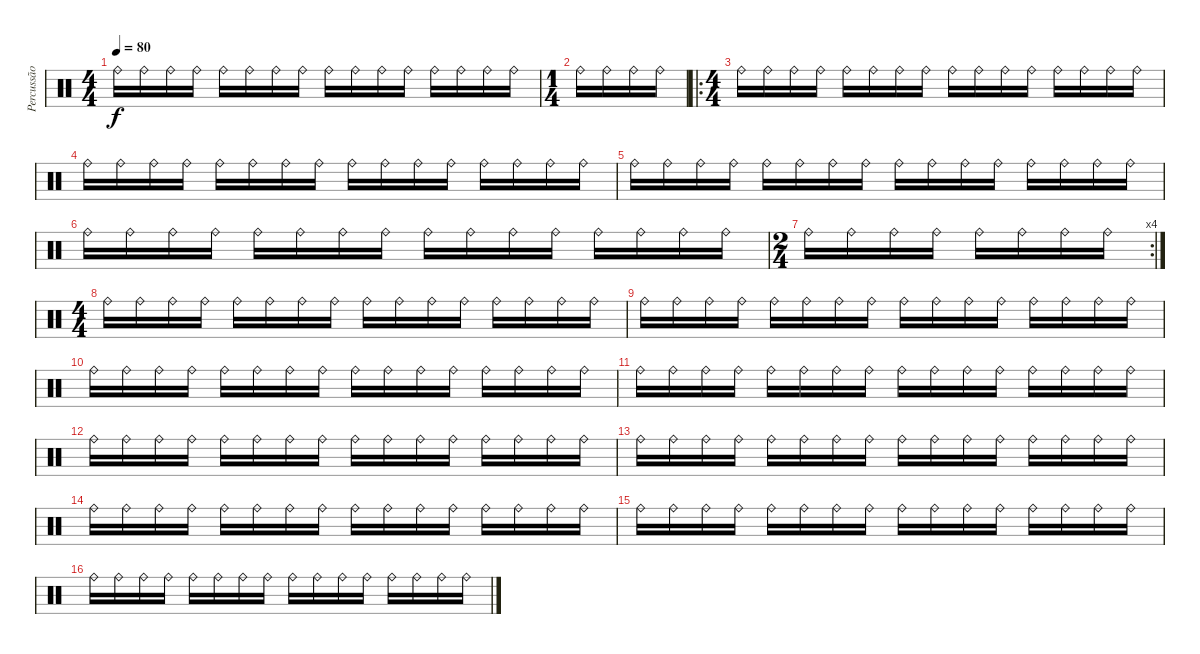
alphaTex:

\track ("Percussão" "Percussão") {instrument percussion}
\staff {score}
\articulation defaults
\ts (4 4)
\tempo 80
\clef neutral
\ks c "Ride (bell)".16{dy f} "Ride (bell)".16 "Ride (bell)".16 "Ride (bell)".16 "Ride (bell)".16 "Ride (bell)".16 "Ride (bell)".16 "Ride (bell)".16 "Ride (bell)".16 "Ride (bell)".16 "Ride (bell)".16 "Ride (bell)".16 "Ride (bell)".16 "Ride (bell)".16 "Ride (bell)".16 "Ride (bell)".16
|
\ts (1 4)
"Ride (bell)".16 "Ride (bell)".16 "Ride (bell)".16 "Ride (bell)".16 |
\ro
\ts (4 4)
"Ride (bell)".16 "Ride (bell)".16 "Ride (bell)".16 "Ride (bell)".16 "Ride (bell)".16 "Ride (bell)".16 "Ride (bell)".16 "Ride (bell)".16 "Ride (bell)".16 "Ride (bell)".16 "Ride (bell)".16 "Ride (bell)".16 "Ride (bell)".16 "Ride (bell)".16 "Ride (bell)".16 "Ride (bell)".16 |
"Ride (bell)".16 "Ride (bell)".16 "Ride (bell)".16 "Ride (bell)".16 "Ride (bell)".16 "Ride (bell)".16 "Ride (bell)".16 "Ride (bell)".16 "Ride (bell)".16 "Ride (bell)".16 "Ride (bell)".16 "Ride (bell)".16 "Ride (bell)".16 "Ride (bell)".16 "Ride (bell)".16 "Ride (bell)".16 |
"Ride (bell)".16 "Ride (bell)".16 "Ride (bell)".16 "Ride (bell)".16 "Ride (bell)".16 "Ride (bell)".16 "Ride (bell)".16 "Ride (bell)".16 "Ride (bell)".16 "Ride (bell)".16 "Ride (bell)".16 "Ride (bell)".16 "Ride (bell)".16 "Ride (bell)".16 "Ride (bell)".16 "Ride (bell)".16 |
"Ride (bell)".16 "Ride (bell)".16 "Ride (bell)".16 "Ride (bell)".16 "Ride (bell)".16 "Ride (bell)".16 "Ride (bell)".16 "Ride (bell)".16 "Ride (bell)".16 "Ride (bell)".16 "Ride (bell)".16 "Ride (bell)".16 "Ride (bell)".16 "Ride (bell)".16 "Ride (bell)".16 "Ride (bell)".16 |
\rc 4
\ts (2 4)
"Ride (bell)".16 "Ride (bell)".16 "Ride (bell)".16 "Ride (bell)".16 "Ride (bell)".16 "Ride (bell)".16 "Ride (bell)".16 "Ride (bell)".16 |
\ts (4 4)
"Ride (bell)".16 "Ride (bell)".16 "Ride (bell)".16 "Ride (bell)".16 "Ride (bell)".16 "Ride (bell)".16 "Ride (bell)".16 "Ride (bell)".16 "Ride (bell)".16 "Ride (bell)".16 "Ride (bell)".16 "Ride (bell)".16 "Ride (bell)".16 "Ride (bell)".16 "Ride (bell)".16 "Ride (bell)".16 |
"Ride (bell)".16 "Ride (bell)".16 "Ride (bell)".16 "Ride (bell)".16 "Ride (bell)".16 "Ride (bell)".16 "Ride (bell)".16 "Ride (bell)".16 "Ride (bell)".16 "Ride (bell)".16 "Ride (bell)".16 "Ride (bell)".16 "Ride (bell)".16 "Ride (bell)".16 "Ride (bell)".16 "Ride (bell)".16 |
"Ride (bell)".16 "Ride (bell)".16 "Ride (bell)".16 "Ride (bell)".16 "Ride (bell)".16 "Ride (bell)".16 "Ride (bell)".16 "Ride (bell)".16 "Ride (bell)".16 "Ride (bell)".16 "Ride (bell)".16 "Ride (bell)".16 "Ride (bell)".16 "Ride (bell)".16 "Ride (bell)".16 "Ride (bell)".16 |
"Ride (bell)".16 "Ride (bell)".16 "Ride (bell)".16 "Ride (bell)".16 "Ride (bell)".16 "Ride (bell)".16 "Ride (bell)".16 "Ride (bell)".16 "Ride (bell)".16 "Ride (bell)".16 "Ride (bell)".16 "Ride (bell)".16 "Ride (bell)".16 "Ride (bell)".16 "Ride (bell)".16 "Ride (bell)".16 |
"Ride (bell)".16 "Ride (bell)".16 "Ride (bell)".16 "Ride (bell)".16 "Ride (bell)".16 "Ride (bell)".16 "Ride (bell)".16 "Ride (bell)".16 "Ride (bell)".16 "Ride (bell)".16 "Ride (bell)".16 "Ride (bell)".16 "Ride (bell)".16 "Ride (bell)".16 "Ride (bell)".16 "Ride (bell)".16 |
"Ride (bell)".16 "Ride (bell)".16 "Ride (bell)".16 "Ride (bell)".16 "Ride (bell)".16 "Ride (bell)".16 "Ride (bell)".16 "Ride (bell)".16 "Ride (bell)".16 "Ride (bell)".16 "Ride (bell)".16 "Ride (bell)".16 "Ride (bell)".16 "Ride (bell)".16 "Ride (bell)".16 "Ride (bell)".16 |
"Ride (bell)".16 "Ride (bell)".16 "Ride (bell)".16 "Ride (bell)".16 "Ride (bell)".16 "Ride (bell)".16 "Ride (bell)".16 "Ride (bell)".16 "Ride (bell)".16 "Ride (bell)".16 "Ride (bell)".16 "Ride (bell)".16 "Ride (bell)".16 "Ride (bell)".16 "Ride (bell)".16 "Ride (bell)".16 |
"Ride (bell)".16 "Ride (bell)".16 "Ride (bell)".16 "Ride (bell)".16 "Ride (bell)".16 "Ride (bell)".16 "Ride (bell)".16 "Ride (bell)".16 "Ride (bell)".16 "Ride (bell)".16 "Ride (bell)".16 "Ride (bell)".16 "Ride (bell)".16 "Ride (bell)".16 "Ride (bell)".16 "Ride (bell)".16 |
"Ride (bell)".16 "Ride (bell)".16 "Ride (bell)".16 "Ride (bell)".16 "Ride (bell)".16 "Ride (bell)".16 "Ride (bell)".16 "Ride (bell)".16 "Ride (bell)".16 "Ride (bell)".16 "Ride (bell)".16 "Ride (bell)".16 "Ride (bell)".16 "Ride (bell)".16 "Ride (bell)".16 "Ride (bell)".16
